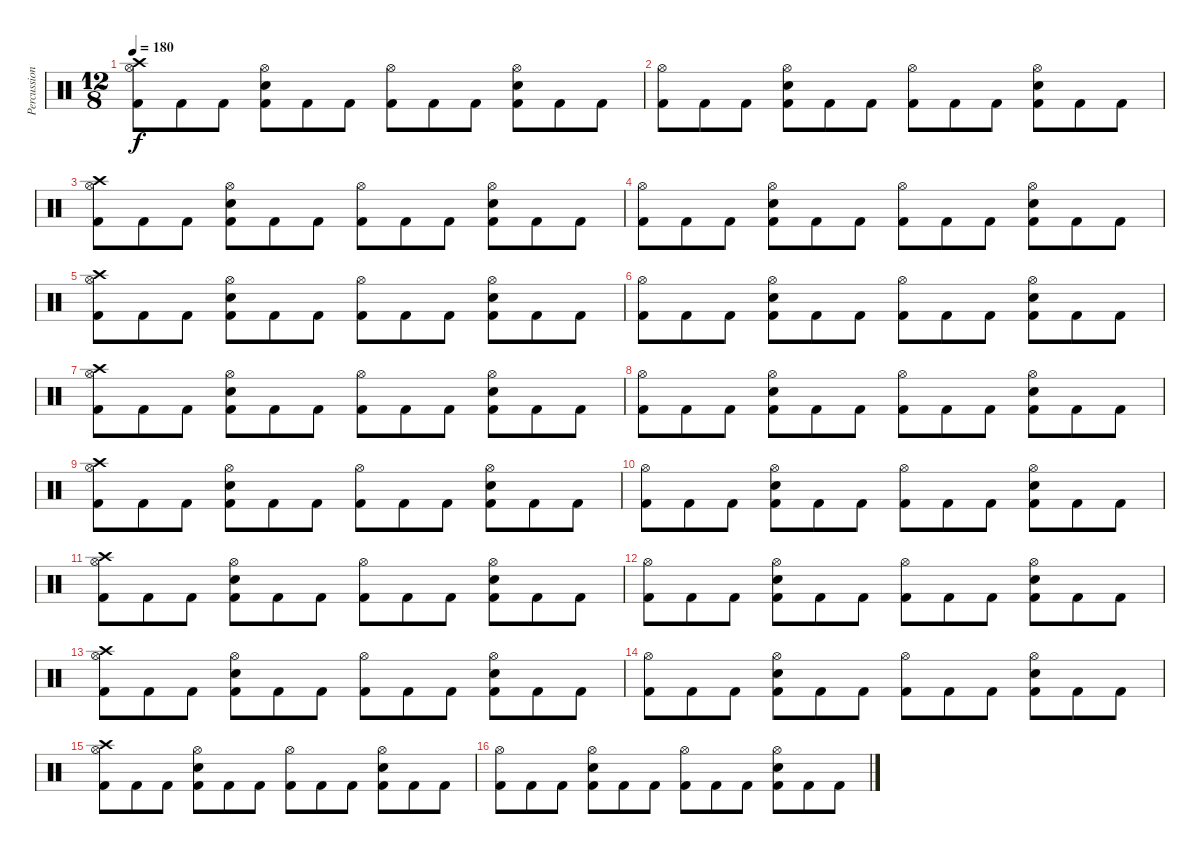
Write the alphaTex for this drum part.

\track ("Percussion" "Percussion") {instrument percussion}
\staff {score}
\articulation defaults
\ts (12 8)
\tempo 180
\clef neutral
\ks c
("Crash high (hit)" "Hi-Hat (open)" "Kick (hit) 2").8{dy f} "Kick (hit) 2".8 "Kick (hit) 2".8 ("Hi-Hat (open)" "Snare (hit) 2" "Kick (hit) 2").8 "Kick (hit) 2".8 "Kick (hit) 2".8 ("Hi-Hat (open)" "Kick (hit) 2").8 "Kick (hit) 2".8 "Kick (hit) 2".8 ("Hi-Hat (open)" "Snare (hit) 2" "Kick (hit) 2").8 "Kick (hit) 2".8 "Kick (hit) 2".8 |
("Hi-Hat (open)" "Kick (hit) 2").8 "Kick (hit) 2".8 "Kick (hit) 2".8 ("Hi-Hat (open)" "Snare (hit) 2" "Kick (hit) 2").8 "Kick (hit) 2".8 "Kick (hit) 2".8 ("Hi-Hat (open)" "Kick (hit) 2").8 "Kick (hit) 2".8 "Kick (hit) 2".8 ("Hi-Hat (open)" "Snare (hit) 2" "Kick (hit) 2").8 "Kick (hit) 2".8 "Kick (hit) 2".8 |
("Crash high (hit)" "Hi-Hat (open)" "Kick (hit) 2").8 "Kick (hit) 2".8 "Kick (hit) 2".8 ("Hi-Hat (open)" "Snare (hit) 2" "Kick (hit) 2").8 "Kick (hit) 2".8 "Kick (hit) 2".8 ("Hi-Hat (open)" "Kick (hit) 2").8 "Kick (hit) 2".8 "Kick (hit) 2".8 ("Hi-Hat (open)" "Snare (hit) 2" "Kick (hit) 2").8 "Kick (hit) 2".8 "Kick (hit) 2".8 |
("Hi-Hat (open)" "Kick (hit) 2").8 "Kick (hit) 2".8 "Kick (hit) 2".8 ("Hi-Hat (open)" "Snare (hit) 2" "Kick (hit) 2").8 "Kick (hit) 2".8 "Kick (hit) 2".8 ("Hi-Hat (open)" "Kick (hit) 2").8 "Kick (hit) 2".8 "Kick (hit) 2".8 ("Hi-Hat (open)" "Snare (hit) 2" "Kick (hit) 2").8 "Kick (hit) 2".8 "Kick (hit) 2".8 |
("Crash high (hit)" "Hi-Hat (open)" "Kick (hit) 2").8 "Kick (hit) 2".8 "Kick (hit) 2".8 ("Hi-Hat (open)" "Snare (hit) 2" "Kick (hit) 2").8 "Kick (hit) 2".8 "Kick (hit) 2".8 ("Hi-Hat (open)" "Kick (hit) 2").8 "Kick (hit) 2".8 "Kick (hit) 2".8 ("Hi-Hat (open)" "Snare (hit) 2" "Kick (hit) 2").8 "Kick (hit) 2".8 "Kick (hit) 2".8 |
("Hi-Hat (open)" "Kick (hit) 2").8 "Kick (hit) 2".8 "Kick (hit) 2".8 ("Hi-Hat (open)" "Snare (hit) 2" "Kick (hit) 2").8 "Kick (hit) 2".8 "Kick (hit) 2".8 ("Hi-Hat (open)" "Kick (hit) 2").8 "Kick (hit) 2".8 "Kick (hit) 2".8 ("Hi-Hat (open)" "Snare (hit) 2" "Kick (hit) 2").8 "Kick (hit) 2".8 "Kick (hit) 2".8 |
("Crash high (hit)" "Hi-Hat (open)" "Kick (hit) 2").8 "Kick (hit) 2".8 "Kick (hit) 2".8 ("Hi-Hat (open)" "Snare (hit) 2" "Kick (hit) 2").8 "Kick (hit) 2".8 "Kick (hit) 2".8 ("Hi-Hat (open)" "Kick (hit) 2").8 "Kick (hit) 2".8 "Kick (hit) 2".8 ("Hi-Hat (open)" "Snare (hit) 2" "Kick (hit) 2").8 "Kick (hit) 2".8 "Kick (hit) 2".8 |
("Hi-Hat (open)" "Kick (hit) 2").8 "Kick (hit) 2".8 "Kick (hit) 2".8 ("Hi-Hat (open)" "Snare (hit) 2" "Kick (hit) 2").8 "Kick (hit) 2".8 "Kick (hit) 2".8 ("Hi-Hat (open)" "Kick (hit) 2").8 "Kick (hit) 2".8 "Kick (hit) 2".8 ("Hi-Hat (open)" "Snare (hit) 2" "Kick (hit) 2").8 "Kick (hit) 2".8 "Kick (hit) 2".8 |
("Crash high (hit)" "Hi-Hat (open)" "Kick (hit) 2").8 "Kick (hit) 2".8 "Kick (hit) 2".8 ("Hi-Hat (open)" "Snare (hit) 2" "Kick (hit) 2").8 "Kick (hit) 2".8 "Kick (hit) 2".8 ("Hi-Hat (open)" "Kick (hit) 2").8 "Kick (hit) 2".8 "Kick (hit) 2".8 ("Hi-Hat (open)" "Snare (hit) 2" "Kick (hit) 2").8 "Kick (hit) 2".8 "Kick (hit) 2".8 |
("Hi-Hat (open)" "Kick (hit) 2").8 "Kick (hit) 2".8 "Kick (hit) 2".8 ("Hi-Hat (open)" "Snare (hit) 2" "Kick (hit) 2").8 "Kick (hit) 2".8 "Kick (hit) 2".8 ("Hi-Hat (open)" "Kick (hit) 2").8 "Kick (hit) 2".8 "Kick (hit) 2".8 ("Hi-Hat (open)" "Snare (hit) 2" "Kick (hit) 2").8 "Kick (hit) 2".8 "Kick (hit) 2".8 |
("Crash high (hit)" "Hi-Hat (open)" "Kick (hit) 2").8 "Kick (hit) 2".8 "Kick (hit) 2".8 ("Hi-Hat (open)" "Snare (hit) 2" "Kick (hit) 2").8 "Kick (hit) 2".8 "Kick (hit) 2".8 ("Hi-Hat (open)" "Kick (hit) 2").8 "Kick (hit) 2".8 "Kick (hit) 2".8 ("Hi-Hat (open)" "Snare (hit) 2" "Kick (hit) 2").8 "Kick (hit) 2".8 "Kick (hit) 2".8 |
("Hi-Hat (open)" "Kick (hit) 2").8 "Kick (hit) 2".8 "Kick (hit) 2".8 ("Hi-Hat (open)" "Snare (hit) 2" "Kick (hit) 2").8 "Kick (hit) 2".8 "Kick (hit) 2".8 ("Hi-Hat (open)" "Kick (hit) 2").8 "Kick (hit) 2".8 "Kick (hit) 2".8 ("Hi-Hat (open)" "Snare (hit) 2" "Kick (hit) 2").8 "Kick (hit) 2".8 "Kick (hit) 2".8 |
("Crash high (hit)" "Hi-Hat (open)" "Kick (hit) 2").8 "Kick (hit) 2".8 "Kick (hit) 2".8 ("Hi-Hat (open)" "Snare (hit) 2" "Kick (hit) 2").8 "Kick (hit) 2".8 "Kick (hit) 2".8 ("Hi-Hat (open)" "Kick (hit) 2").8 "Kick (hit) 2".8 "Kick (hit) 2".8 ("Hi-Hat (open)" "Snare (hit) 2" "Kick (hit) 2").8 "Kick (hit) 2".8 "Kick (hit) 2".8 |
("Hi-Hat (open)" "Kick (hit) 2").8 "Kick (hit) 2".8 "Kick (hit) 2".8 ("Hi-Hat (open)" "Snare (hit) 2" "Kick (hit) 2").8 "Kick (hit) 2".8 "Kick (hit) 2".8 ("Hi-Hat (open)" "Kick (hit) 2").8 "Kick (hit) 2".8 "Kick (hit) 2".8 ("Hi-Hat (open)" "Snare (hit) 2" "Kick (hit) 2").8 "Kick (hit) 2".8 "Kick (hit) 2".8 |
("Crash high (hit)" "Hi-Hat (open)" "Kick (hit) 2").8 "Kick (hit) 2".8 "Kick (hit) 2".8 ("Hi-Hat (open)" "Snare (hit) 2" "Kick (hit) 2").8 "Kick (hit) 2".8 "Kick (hit) 2".8 ("Hi-Hat (open)" "Kick (hit) 2").8 "Kick (hit) 2".8 "Kick (hit) 2".8 ("Hi-Hat (open)" "Snare (hit) 2" "Kick (hit) 2").8 "Kick (hit) 2".8 "Kick (hit) 2".8 |
("Hi-Hat (open)" "Kick (hit) 2").8 "Kick (hit) 2".8 "Kick (hit) 2".8 ("Hi-Hat (open)" "Snare (hit) 2" "Kick (hit) 2").8 "Kick (hit) 2".8 "Kick (hit) 2".8 ("Hi-Hat (open)" "Kick (hit) 2").8 "Kick (hit) 2".8 "Kick (hit) 2".8 ("Hi-Hat (open)" "Snare (hit) 2" "Kick (hit) 2").8 "Kick (hit) 2".8 "Kick (hit) 2".8
